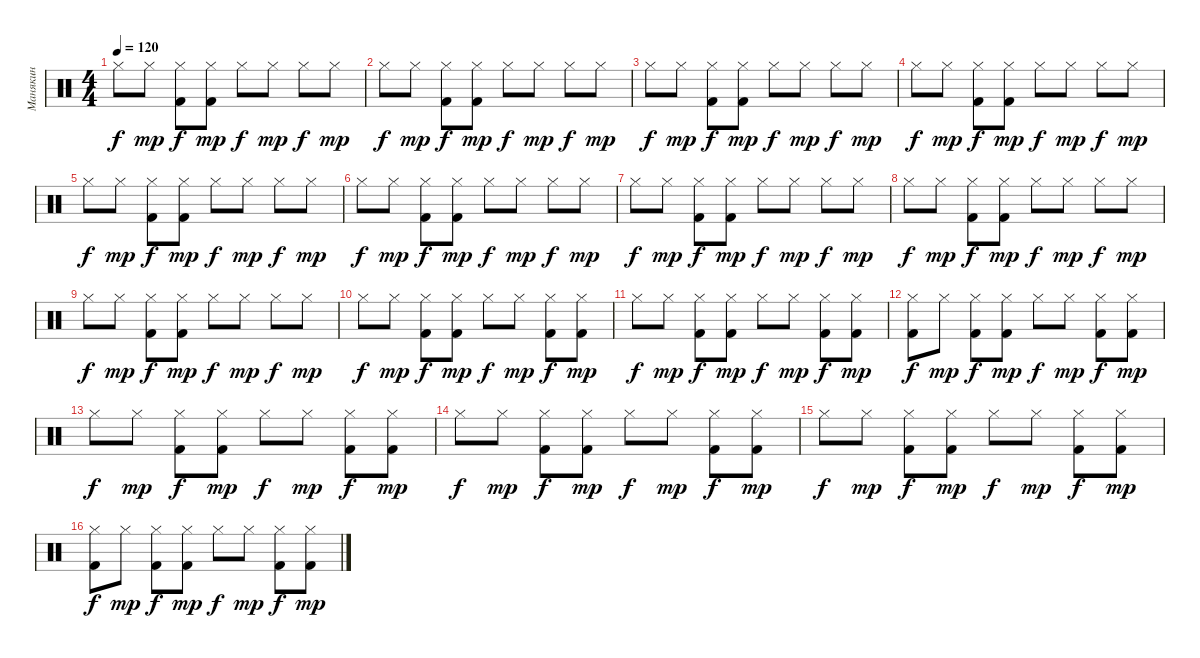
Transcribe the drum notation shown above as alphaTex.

\track ("Манякин" "Манякин") {instrument percussion}
\staff {score}
\articulation defaults
\ts (4 4)
\tempo 120
\clef neutral
\ks c "Hi-Hat (closed)".8{dy f} "Hi-Hat (closed)".8{dy mp}
("Hi-Hat (closed)" "Kick (hit) 2").8{dy f} ("Hi-Hat (closed)" "Kick (hit) 2").8{dy mp} "Hi-Hat (closed)".8{dy f} "Hi-Hat (closed)".8{dy mp} "Hi-Hat (closed)".8{dy f} "Hi-Hat (closed)".8{dy mp} |
"Hi-Hat (closed)".8{dy f} "Hi-Hat (closed)".8{dy mp} ("Hi-Hat (closed)" "Kick (hit) 2").8{dy f} ("Hi-Hat (closed)" "Kick (hit) 2").8{dy mp} "Hi-Hat (closed)".8{dy f} "Hi-Hat (closed)".8{dy mp} "Hi-Hat (closed)".8{dy f} "Hi-Hat (closed)".8{dy mp} |
"Hi-Hat (closed)".8{dy f} "Hi-Hat (closed)".8{dy mp} ("Hi-Hat (closed)" "Kick (hit) 2").8{dy f} ("Hi-Hat (closed)" "Kick (hit) 2").8{dy mp} "Hi-Hat (closed)".8{dy f} "Hi-Hat (closed)".8{dy mp} "Hi-Hat (closed)".8{dy f} "Hi-Hat (closed)".8{dy mp} |
"Hi-Hat (closed)".8{dy f} "Hi-Hat (closed)".8{dy mp} ("Hi-Hat (closed)" "Kick (hit) 2").8{dy f} ("Hi-Hat (closed)" "Kick (hit) 2").8{dy mp} "Hi-Hat (closed)".8{dy f} "Hi-Hat (closed)".8{dy mp} "Hi-Hat (closed)".8{dy f} "Hi-Hat (closed)".8{dy mp} |
"Hi-Hat (closed)".8{dy f} "Hi-Hat (closed)".8{dy mp} ("Hi-Hat (closed)" "Kick (hit) 2").8{dy f} ("Hi-Hat (closed)" "Kick (hit) 2").8{dy mp} "Hi-Hat (closed)".8{dy f} "Hi-Hat (closed)".8{dy mp} "Hi-Hat (closed)".8{dy f} "Hi-Hat (closed)".8{dy mp} |
"Hi-Hat (closed)".8{dy f} "Hi-Hat (closed)".8{dy mp} ("Hi-Hat (closed)" "Kick (hit) 2").8{dy f} ("Hi-Hat (closed)" "Kick (hit) 2").8{dy mp} "Hi-Hat (closed)".8{dy f} "Hi-Hat (closed)".8{dy mp} "Hi-Hat (closed)".8{dy f} "Hi-Hat (closed)".8{dy mp} |
"Hi-Hat (closed)".8{dy f} "Hi-Hat (closed)".8{dy mp} ("Hi-Hat (closed)" "Kick (hit) 2").8{dy f} ("Hi-Hat (closed)" "Kick (hit) 2").8{dy mp} "Hi-Hat (closed)".8{dy f} "Hi-Hat (closed)".8{dy mp} "Hi-Hat (closed)".8{dy f} "Hi-Hat (closed)".8{dy mp} |
"Hi-Hat (closed)".8{dy f} "Hi-Hat (closed)".8{dy mp} ("Hi-Hat (closed)" "Kick (hit) 2").8{dy f} ("Hi-Hat (closed)" "Kick (hit) 2").8{dy mp} "Hi-Hat (closed)".8{dy f} "Hi-Hat (closed)".8{dy mp} "Hi-Hat (closed)".8{dy f} "Hi-Hat (closed)".8{dy mp} |
"Hi-Hat (closed)".8{dy f} "Hi-Hat (closed)".8{dy mp} ("Hi-Hat (closed)" "Kick (hit) 2").8{dy f} ("Hi-Hat (closed)" "Kick (hit) 2").8{dy mp} "Hi-Hat (closed)".8{dy f} "Hi-Hat (closed)".8{dy mp} "Hi-Hat (closed)".8{dy f} "Hi-Hat (closed)".8{dy mp} |
"Hi-Hat (closed)".8{dy f} "Hi-Hat (closed)".8{dy mp} ("Hi-Hat (closed)" "Kick (hit) 2").8{dy f} ("Hi-Hat (closed)" "Kick (hit) 2").8{dy mp} "Hi-Hat (closed)".8{dy f} "Hi-Hat (closed)".8{dy mp} ("Hi-Hat (closed)" "Kick (hit) 2").8{dy f} ("Hi-Hat (closed)" "Kick (hit) 2").8{dy mp} |
"Hi-Hat (closed)".8{dy f} "Hi-Hat (closed)".8{dy mp} ("Hi-Hat (closed)" "Kick (hit) 2").8{dy f} ("Hi-Hat (closed)" "Kick (hit) 2").8{dy mp} "Hi-Hat (closed)".8{dy f} "Hi-Hat (closed)".8{dy mp} ("Hi-Hat (closed)" "Kick (hit) 2").8{dy f} ("Hi-Hat (closed)" "Kick (hit) 2").8{dy mp} |
("Hi-Hat (closed)" "Kick (hit) 2").8{dy f} "Hi-Hat (closed)".8{dy mp} ("Hi-Hat (closed)" "Kick (hit) 2").8{dy f} ("Hi-Hat (closed)" "Kick (hit) 2").8{dy mp} "Hi-Hat (closed)".8{dy f} "Hi-Hat (closed)".8{dy mp} ("Hi-Hat (closed)" "Kick (hit) 2").8{dy f} ("Hi-Hat (closed)" "Kick (hit) 2").8{dy mp} |
"Hi-Hat (closed)".8{dy f} "Hi-Hat (closed)".8{dy mp} ("Hi-Hat (closed)" "Kick (hit) 2").8{dy f} ("Hi-Hat (closed)" "Kick (hit) 2").8{dy mp} "Hi-Hat (closed)".8{dy f} "Hi-Hat (closed)".8{dy mp} ("Hi-Hat (closed)" "Kick (hit) 2").8{dy f} ("Hi-Hat (closed)" "Kick (hit) 2").8{dy mp} |
"Hi-Hat (closed)".8{dy f} "Hi-Hat (closed)".8{dy mp} ("Hi-Hat (closed)" "Kick (hit) 2").8{dy f} ("Hi-Hat (closed)" "Kick (hit) 2").8{dy mp} "Hi-Hat (closed)".8{dy f} "Hi-Hat (closed)".8{dy mp} ("Hi-Hat (closed)" "Kick (hit) 2").8{dy f} ("Hi-Hat (closed)" "Kick (hit) 2").8{dy mp} |
"Hi-Hat (closed)".8{dy f} "Hi-Hat (closed)".8{dy mp} ("Hi-Hat (closed)" "Kick (hit) 2").8{dy f} ("Hi-Hat (closed)" "Kick (hit) 2").8{dy mp} "Hi-Hat (closed)".8{dy f} "Hi-Hat (closed)".8{dy mp} ("Hi-Hat (closed)" "Kick (hit) 2").8{dy f} ("Hi-Hat (closed)" "Kick (hit) 2").8{dy mp} |
("Hi-Hat (closed)" "Kick (hit) 2").8{dy f} "Hi-Hat (closed)".8{dy mp} ("Hi-Hat (closed)" "Kick (hit) 2").8{dy f} ("Hi-Hat (closed)" "Kick (hit) 2").8{dy mp} "Hi-Hat (closed)".8{dy f} "Hi-Hat (closed)".8{dy mp} ("Hi-Hat (closed)" "Kick (hit) 2").8{dy f} ("Hi-Hat (closed)" "Kick (hit) 2").8{dy mp}
